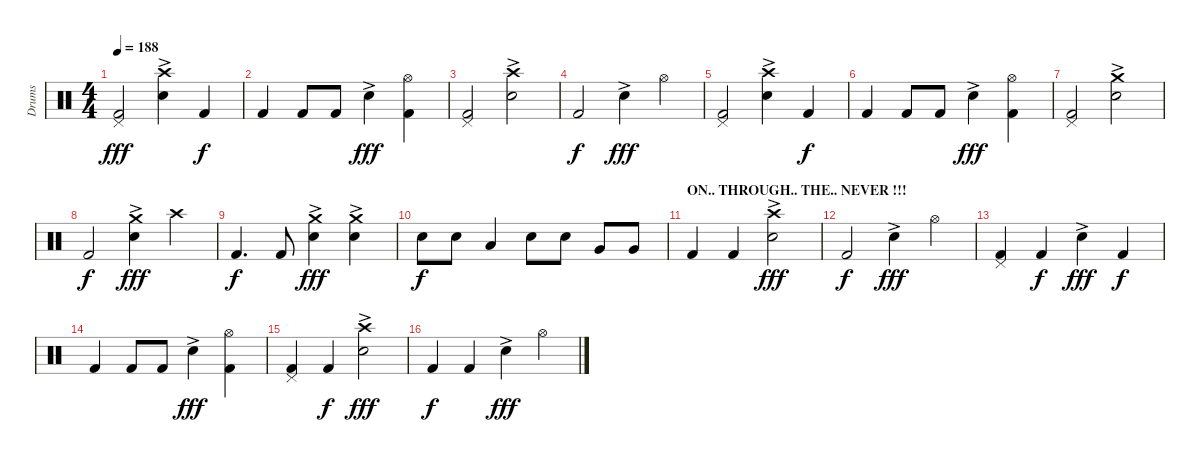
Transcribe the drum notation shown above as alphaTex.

\track ("Drums" "Drums") {instrument percussion}
\staff {score}
\articulation defaults
\ts (4 4)
\tempo 188
\clef neutral
\ks c
("Pedal Hi-Hat (hit)" "Kick (hit) 2").2{dy fff} ("Crash high (hit)" "Snare (hit) 2"{ac}).4 "Kick (hit) 2".4{dy f} |
"Kick (hit) 2".4 "Kick (hit) 2".8 "Kick (hit) 2".8 "Snare (hit) 2"{ac}.4{dy fff} ("Hi-Hat (open)" "Kick (hit) 2").4 |
("Pedal Hi-Hat (hit)" "Kick (hit) 2").2 ("Crash high (hit)" "Snare (hit) 2"{ac}).2 |
"Kick (hit) 2".2{dy f} "Snare (hit) 2"{ac}.4{dy fff} "Hi-Hat (open)".4 |
("Pedal Hi-Hat (hit)" "Kick (hit) 2").2 ("Crash high (hit)" "Snare (hit) 2"{ac}).4 "Kick (hit) 2".4{dy f} |
"Kick (hit) 2".4 "Kick (hit) 2".8 "Kick (hit) 2".8 "Snare (hit) 2"{ac}.4{dy fff} ("Hi-Hat (open)" "Kick (hit) 2").4 |
("Pedal Hi-Hat (hit)" "Kick (hit) 2").2 ("Crash medium (hit)" "Snare (hit) 2"{ac}).2 |
"Kick (hit) 2".2{dy f} ("Crash medium (hit)" "Snare (hit) 2"{ac}).4{dy fff} "Crash high (hit)".4 |
"Kick (hit) 2".4{d dy f} "Kick (hit) 2".8 ("Crash medium (hit)" "Snare (hit) 2"{ac}).4{dy fff} ("Crash medium (hit)" "Snare (hit) 2"{ac}).4 |
"Snare (hit) 2".8{dy f} "Snare (hit) 2".8 "Low Tom (hit)".4 "Snare (hit) 2".8 "Snare (hit) 2".8 "Very Low Tom (hit)".8 "Very Low Tom (hit)".8 |
\section ("" "ON.. THROUGH.. THE.. NEVER !!!")
"Kick (hit) 2".4 "Kick (hit) 2".4 ("Crash high (hit)" "Snare (hit) 2"{ac}).2{dy fff} |
"Kick (hit) 2".2{dy f} "Snare (hit) 2"{ac}.4{dy fff} "Hi-Hat (open)".4 |
("Pedal Hi-Hat (hit)" "Kick (hit) 2").4 "Kick (hit) 2".4{dy f} "Snare (hit) 2"{ac}.4{dy fff} "Kick (hit) 2".4{dy f} |
"Kick (hit) 2".4 "Kick (hit) 2".8 "Kick (hit) 2".8 "Snare (hit) 2"{ac}.4{dy fff} ("Hi-Hat (open)" "Kick (hit) 2").4 |
("Pedal Hi-Hat (hit)" "Kick (hit) 2").4 "Kick (hit) 2".4{dy f} ("Crash high (hit)" "Snare (hit) 2"{ac}).2{dy fff} |
"Kick (hit) 2".4{dy f} "Kick (hit) 2".4 "Snare (hit) 2"{ac}.4{dy fff} "Hi-Hat (open)".4
